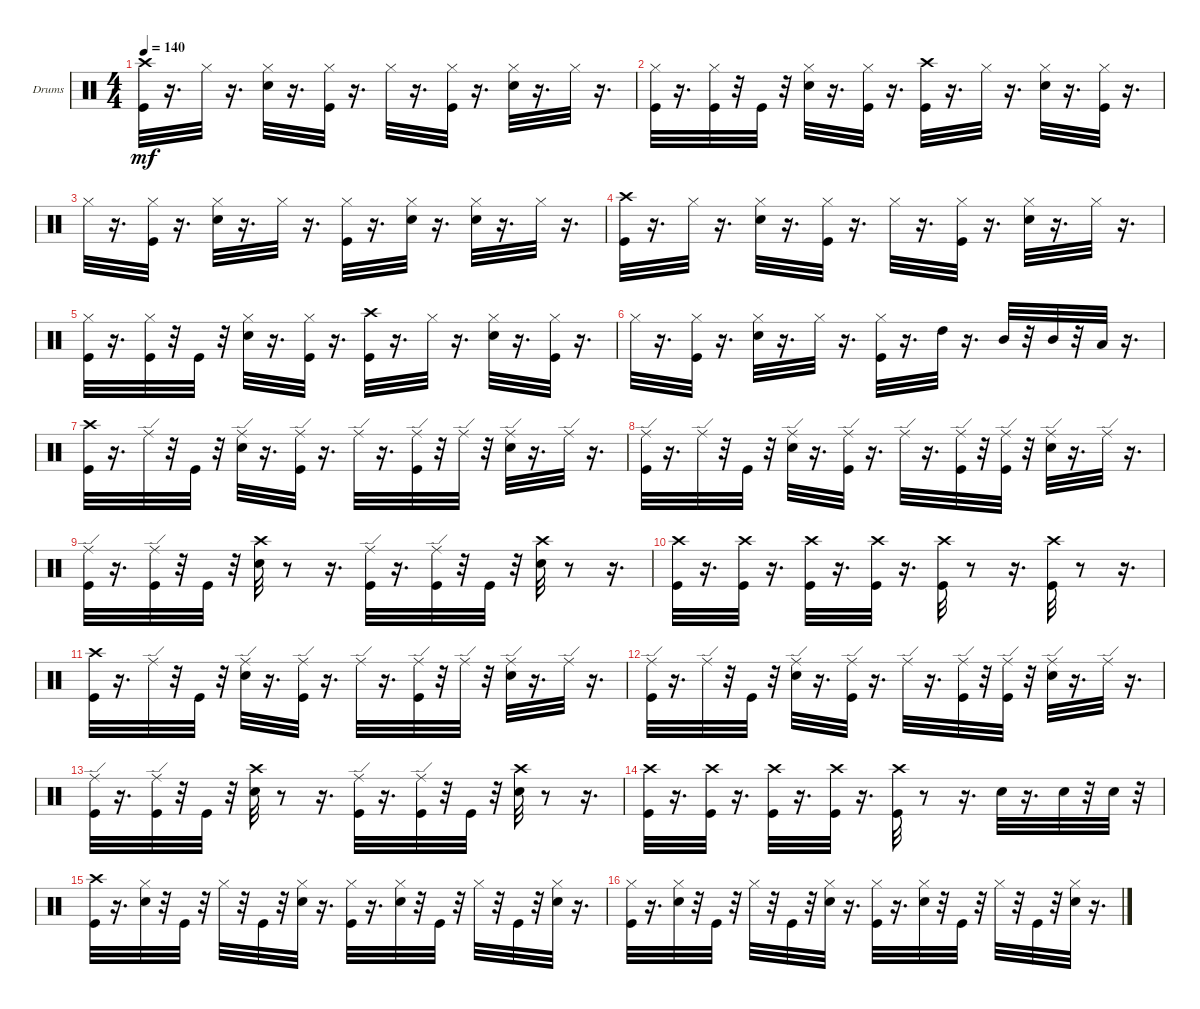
\bracketExtendMode groupsimilarinstruments
\firstSystemTrackNameOrientation horizontal
\otherSystemsTrackNameOrientation horizontal
\track ("" "Drums") {instrument percussion}
\staff {score}
\articulation defaults
\ts (4 4)
\tempo 140
\clef neutral
\ks c
("Crash high (hit)" "Kick (hit)").32{dy mf} r.16{d} "Hi-Hat (closed)".32 r.16{d} ("Hi-Hat (closed)" "Snare (hit) 2").32 r.16{d} ("Hi-Hat (closed)" "Kick (hit)").32 r.16{d} "Hi-Hat (closed)".32 r.16{d} ("Hi-Hat (closed)" "Kick (hit)").32 r.16{d} ("Hi-Hat (closed)" "Snare (hit) 2").32 r.16{d} "Hi-Hat (closed)".32 r.16{d} |
("Hi-Hat (closed)" "Kick (hit)").32 r.16{d} ("Hi-Hat (closed)" "Kick (hit)").32 r.32 "Kick (hit)".32 r.32 ("Hi-Hat (closed)" "Snare (hit) 2").32 r.16{d} ("Hi-Hat (closed)" "Kick (hit)").32 r.16{d} ("Crash high (hit)" "Kick (hit)").32 r.16{d} "Hi-Hat (closed)".32 r.16{d} ("Hi-Hat (closed)" "Snare (hit) 2").32 r.16{d} ("Hi-Hat (closed)" "Kick (hit)").32 r.16{d} |
"Hi-Hat (closed)".32 r.16{d} ("Hi-Hat (closed)" "Kick (hit)").32 r.16{d} ("Hi-Hat (closed)" "Snare (hit) 2").32 r.16{d} "Hi-Hat (closed)".32 r.16{d} ("Hi-Hat (closed)" "Kick (hit)").32 r.16{d} ("Hi-Hat (closed)" "Snare (hit) 2").32 r.16{d} ("Hi-Hat (closed)" "Snare (hit) 2").32 r.16{d} "Hi-Hat (closed)".32 r.16{d} |
("Crash high (hit)" "Kick (hit)").32 r.16{d} "Hi-Hat (closed)".32 r.16{d} ("Hi-Hat (closed)" "Snare (hit) 2").32 r.16{d} ("Hi-Hat (closed)" "Kick (hit)").32 r.16{d} "Hi-Hat (closed)".32 r.16{d} ("Hi-Hat (closed)" "Kick (hit)").32 r.16{d} ("Hi-Hat (closed)" "Snare (hit) 2").32 r.16{d} "Hi-Hat (closed)".32 r.16{d} |
("Hi-Hat (closed)" "Kick (hit)").32 r.16{d} ("Hi-Hat (closed)" "Kick (hit)").32 r.32 "Kick (hit)".32 r.32 ("Hi-Hat (closed)" "Snare (hit) 2").32 r.16{d} ("Hi-Hat (closed)" "Kick (hit)").32 r.16{d} ("Crash high (hit)" "Kick (hit)").32 r.16{d} "Hi-Hat (closed)".32 r.16{d} ("Hi-Hat (closed)" "Snare (hit) 2").32 r.16{d} ("Hi-Hat (closed)" "Kick (hit)").32 r.16{d} |
"Hi-Hat (closed)".32 r.16{d} ("Hi-Hat (closed)" "Kick (hit)").32 r.16{d} ("Hi-Hat (closed)" "Snare (hit) 2").32 r.16{d} "Hi-Hat (closed)".32 r.16{d} ("Hi-Hat (closed)" "Kick (hit)").32 r.16{d} "High Tom (hit)".32 r.16{d} "Mid Tom (hit)".32 r.32 "Mid Tom (hit)".32 r.32 "Low Tom (hit)".32 r.16{d} |
("Crash high (hit)" "Kick (hit)").32 r.16{d} "Ride (edge)".32 r.32 "Kick (hit)".32 r.32 ("Ride (edge)" "Snare (hit) 2").32 r.16{d} ("Kick (hit)" "Ride (edge)").32 r.16{d} "Ride (edge)".32 r.16{d} ("Kick (hit)" "Ride (edge)").32 r.32 "Ride (edge)".32 r.32 ("Ride (edge)" "Snare (hit) 2").32 r.16{d} "Ride (edge)".32 r.16{d} |
("Ride (edge)" "Kick (hit)").32 r.16{d} "Ride (edge)".32 r.32 "Kick (hit)".32 r.32 ("Ride (edge)" "Snare (hit) 2").32 r.16{d} ("Kick (hit)" "Ride (edge)").32 r.16{d} "Ride (edge)".32 r.16{d} ("Kick (hit)" "Ride (edge)").32 r.32 ("Kick (hit)" "Ride (edge)").32 r.32 ("Ride (edge)" "Snare (hit) 2").32 r.16{d} "Ride (edge)".32 r.16{d} |
("Ride (edge)" "Kick (hit)").32 r.16{d} ("Ride (edge)" "Kick (hit)").32 r.32 "Kick (hit)".32 r.32 ("Crash high (hit)" "Snare (hit) 2").32 r.8 r.16{d} ("Ride (edge)" "Kick (hit)").32 r.16{d} ("Kick (hit)" "Ride (edge)").32 r.32 "Kick (hit)".32 r.32 ("Crash high (hit)" "Snare (hit) 2").32 r.8 r.16{d} |
("Crash high (hit)" "Kick (hit)").32 r.16{d} ("Crash high (hit)" "Kick (hit)").32 r.16{d} ("Crash high (hit)" "Kick (hit)").32 r.16{d} ("Crash high (hit)" "Kick (hit)").32 r.16{d} ("Crash high (hit)" "Kick (hit)").32 r.8 r.16{d} ("Crash high (hit)" "Kick (hit)").32 r.8 r.16{d} |
("Crash high (hit)" "Kick (hit)").32 r.16{d} "Ride (edge)".32 r.32 "Kick (hit)".32 r.32 ("Ride (edge)" "Snare (hit) 2").32 r.16{d} ("Kick (hit)" "Ride (edge)").32 r.16{d} "Ride (edge)".32 r.16{d} ("Kick (hit)" "Ride (edge)").32 r.32 "Ride (edge)".32 r.32 ("Ride (edge)" "Snare (hit) 2").32 r.16{d} "Ride (edge)".32 r.16{d} |
("Ride (edge)" "Kick (hit)").32 r.16{d} "Ride (edge)".32 r.32 "Kick (hit)".32 r.32 ("Ride (edge)" "Snare (hit) 2").32 r.16{d} ("Kick (hit)" "Ride (edge)").32 r.16{d} "Ride (edge)".32 r.16{d} ("Kick (hit)" "Ride (edge)").32 r.32 ("Kick (hit)" "Ride (edge)").32 r.32 ("Ride (edge)" "Snare (hit) 2").32 r.16{d} "Ride (edge)".32 r.16{d} |
("Ride (edge)" "Kick (hit)").32 r.16{d} ("Ride (edge)" "Kick (hit)").32 r.32 "Kick (hit)".32 r.32 ("Crash high (hit)" "Snare (hit) 2").32 r.8 r.16{d} ("Ride (edge)" "Kick (hit)").32 r.16{d} ("Kick (hit)" "Ride (edge)").32 r.32 "Kick (hit)".32 r.32 ("Crash high (hit)" "Snare (hit) 2").32 r.8 r.16{d} |
("Crash high (hit)" "Kick (hit)").32 r.16{d} ("Crash high (hit)" "Kick (hit)").32 r.16{d} ("Crash high (hit)" "Kick (hit)").32 r.16{d} ("Crash high (hit)" "Kick (hit)").32 r.16{d} ("Crash high (hit)" "Kick (hit)").32 r.8 r.16{d} "Snare (hit) 2".32 r.16{d} "Snare (hit) 2".32 r.32 "Snare (hit) 2".32 r.32 |
("Crash high (hit)" "Kick (hit)").32 r.16{d} ("Snare (hit) 2" "Hi-Hat (closed)").32 r.32 "Kick (hit)".32 r.32 "Hi-Hat (closed)".32 r.32 "Kick (hit)".32 r.32 ("Snare (hit) 2" "Hi-Hat (closed)").32 r.16{d} ("Kick (hit)" "Hi-Hat (closed)").32 r.16{d} ("Snare (hit) 2" "Hi-Hat (closed)").32 r.32 "Kick (hit)".32 r.32 "Hi-Hat (closed)".32 r.32 "Kick (hit)".32 r.32 ("Snare (hit) 2" "Hi-Hat (closed)").32 r.16{d} |
("Hi-Hat (closed)" "Kick (hit)").32 r.16{d} ("Snare (hit) 2" "Hi-Hat (closed)").32 r.32 "Kick (hit)".32 r.32 "Hi-Hat (closed)".32 r.32 "Kick (hit)".32 r.32 ("Snare (hit) 2" "Hi-Hat (closed)").32 r.16{d} ("Kick (hit)" "Hi-Hat (closed)").32 r.16{d} ("Snare (hit) 2" "Hi-Hat (closed)").32 r.32 "Kick (hit)".32 r.32 "Hi-Hat (closed)".32 r.32 "Kick (hit)".32 r.32 ("Snare (hit) 2" "Hi-Hat (closed)").32 r.16{d}
